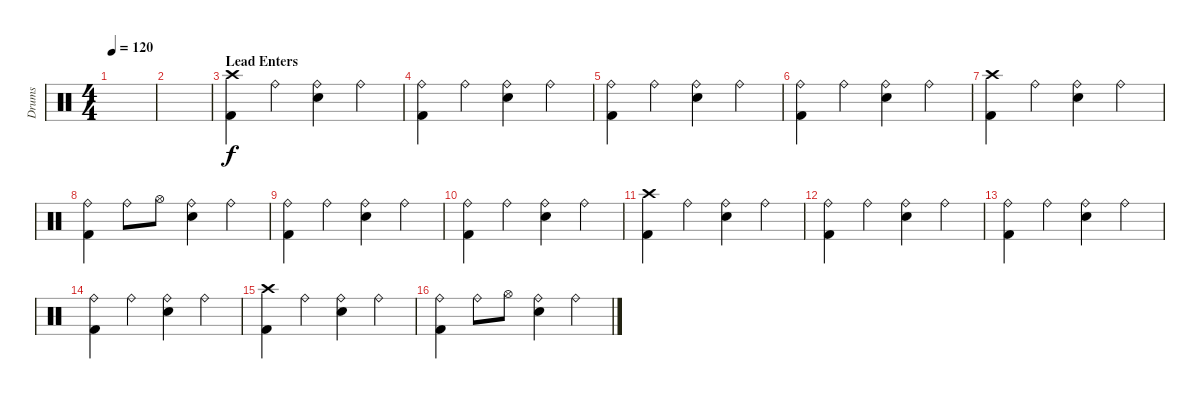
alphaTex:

\track ("Drums" "Drums") {instrument percussion}
\staff {score}
\articulation defaults
\ts (4 4)
\tempo 120
\clef neutral
\ks c
|
|
\section ("" "Lead Enters")
("Crash high (hit)" "Kick (hit) 2").4 "Ride (bell)".4 ("Ride (bell)" "Snare (hit) 2").4 "Ride (bell)".4 |
("Ride (bell)" "Kick (hit) 2").4 "Ride (bell)".4 ("Ride (bell)" "Snare (hit) 2").4 "Ride (bell)".4 |
("Ride (bell)" "Kick (hit) 2").4 "Ride (bell)".4 ("Ride (bell)" "Snare (hit) 2").4 "Ride (bell)".4 |
("Ride (bell)" "Kick (hit) 2").4 "Ride (bell)".4 ("Ride (bell)" "Snare (hit) 2").4 "Ride (bell)".4 |
("Crash high (hit)" "Kick (hit) 2").4 "Ride (bell)".4 ("Ride (bell)" "Snare (hit) 2").4 "Ride (bell)".4 |
("Ride (bell)" "Kick (hit) 2").4 "Ride (bell)".8 "Hi-Hat (open)".8 ("Ride (bell)" "Snare (hit) 2").4 "Ride (bell)".4 |
("Ride (bell)" "Kick (hit) 2").4 "Ride (bell)".4 ("Ride (bell)" "Snare (hit) 2").4 "Ride (bell)".4 |
("Ride (bell)" "Kick (hit) 2").4 "Ride (bell)".4 ("Ride (bell)" "Snare (hit) 2").4 "Ride (bell)".4 |
("Crash high (hit)" "Kick (hit) 2").4 "Ride (bell)".4 ("Ride (bell)" "Snare (hit) 2").4 "Ride (bell)".4 |
("Ride (bell)" "Kick (hit) 2").4 "Ride (bell)".4 ("Ride (bell)" "Snare (hit) 2").4 "Ride (bell)".4 |
("Ride (bell)" "Kick (hit) 2").4 "Ride (bell)".4 ("Ride (bell)" "Snare (hit) 2").4 "Ride (bell)".4 |
("Ride (bell)" "Kick (hit) 2").4 "Ride (bell)".4 ("Ride (bell)" "Snare (hit) 2").4 "Ride (bell)".4 |
("Crash high (hit)" "Kick (hit) 2").4 "Ride (bell)".4 ("Ride (bell)" "Snare (hit) 2").4 "Ride (bell)".4 |
("Ride (bell)" "Kick (hit) 2").4 "Ride (bell)".8 "Hi-Hat (open)".8 ("Ride (bell)" "Snare (hit) 2").4 "Ride (bell)".4
